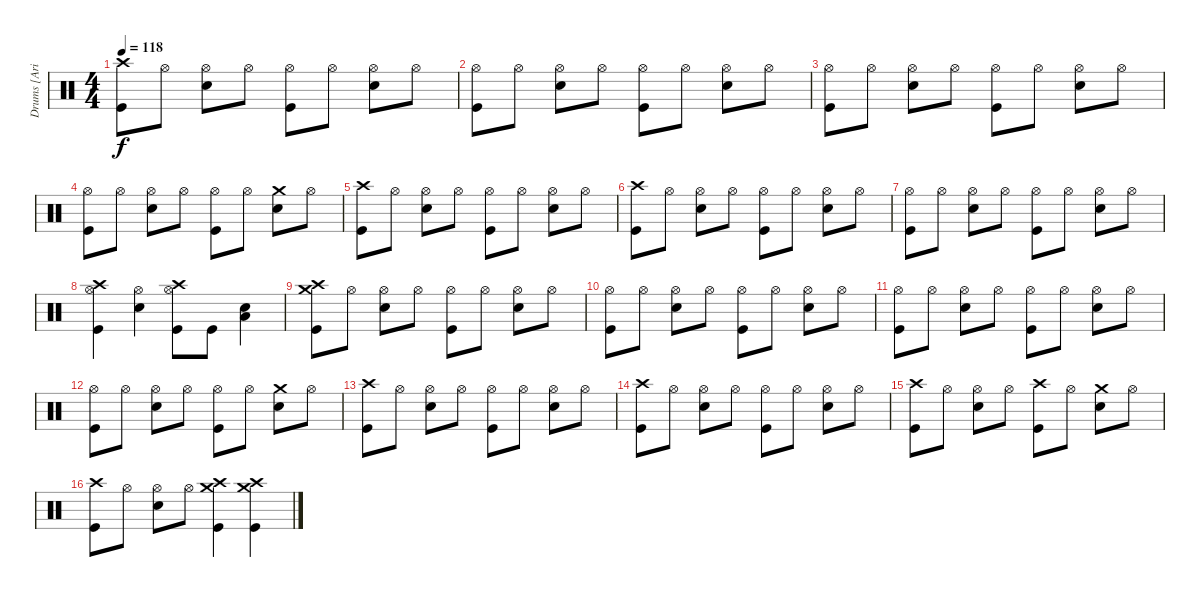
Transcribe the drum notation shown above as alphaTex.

\track ("Drums [Arin Ilejay]" "Drums [Ari") {instrument percussion}
\staff {score}
\articulation defaults
\ts (4 4)
\tempo 118
\clef neutral
\ks c
("Crash high (hit)" "Kick (hit)").8{dy f} "Hi-Hat (open)".8 ("Hi-Hat (open)" "Snare (hit) 2").8 "Hi-Hat (open)".8 ("Hi-Hat (open)" "Kick (hit)").8 "Hi-Hat (open)".8 ("Hi-Hat (open)" "Snare (hit) 2").8 "Hi-Hat (open)".8 |
("Hi-Hat (open)" "Kick (hit)").8 "Hi-Hat (open)".8 ("Hi-Hat (open)" "Snare (hit) 2").8 "Hi-Hat (open)".8 ("Hi-Hat (open)" "Kick (hit)").8 "Hi-Hat (open)".8 ("Hi-Hat (open)" "Snare (hit) 2").8 "Hi-Hat (open)".8 |
("Hi-Hat (open)" "Kick (hit)").8 "Hi-Hat (open)".8 ("Hi-Hat (open)" "Snare (hit) 2").8 "Hi-Hat (open)".8 ("Hi-Hat (open)" "Kick (hit)").8 "Hi-Hat (open)".8 ("Hi-Hat (open)" "Snare (hit) 2").8 "Hi-Hat (open)".8 |
("Hi-Hat (open)" "Kick (hit)").8 "Hi-Hat (open)".8 ("Hi-Hat (open)" "Snare (hit) 2").8 "Hi-Hat (open)".8 ("Hi-Hat (open)" "Kick (hit)").8 "Hi-Hat (open)".8 ("Crash medium (hit)" "Snare (hit) 2").8 "Hi-Hat (open)".8 |
("Crash high (hit)" "Kick (hit)").8 "Hi-Hat (open)".8 ("Hi-Hat (open)" "Snare (hit) 2").8 "Hi-Hat (open)".8 ("Hi-Hat (open)" "Kick (hit)").8 "Hi-Hat (open)".8 ("Hi-Hat (open)" "Snare (hit) 2").8 "Hi-Hat (open)".8 |
("Crash high (hit)" "Kick (hit)").8 "Hi-Hat (open)".8 ("Hi-Hat (open)" "Snare (hit) 2").8 "Hi-Hat (open)".8 ("Hi-Hat (open)" "Kick (hit)").8 "Hi-Hat (open)".8 ("Hi-Hat (open)" "Snare (hit) 2").8 "Hi-Hat (open)".8 |
("Hi-Hat (open)" "Kick (hit)").8 "Hi-Hat (open)".8 ("Hi-Hat (open)" "Snare (hit) 2").8 "Hi-Hat (open)".8 ("Hi-Hat (open)" "Kick (hit)").8 "Hi-Hat (open)".8 ("Hi-Hat (open)" "Snare (hit) 2").8 "Hi-Hat (open)".8 |
("Crash high (hit)" "Hi-Hat (open)" "Kick (hit)").4 ("Hi-Hat (open)" "Snare (hit) 2").4 ("Crash high (hit)" "Hi-Hat (open)" "Kick (hit)").8 "Kick (hit)".8 ("Low Floor Tom (hit)" "Snare (hit) 2").4 |
("Crash high (hit)" "Crash medium (hit)" "Kick (hit)").8 "Hi-Hat (open)".8 ("Hi-Hat (open)" "Snare (hit) 2").8 "Hi-Hat (open)".8 ("Hi-Hat (open)" "Kick (hit)").8 "Hi-Hat (open)".8 ("Hi-Hat (open)" "Snare (hit) 2").8 "Hi-Hat (open)".8 |
("Hi-Hat (open)" "Kick (hit)").8 "Hi-Hat (open)".8 ("Hi-Hat (open)" "Snare (hit) 2").8 "Hi-Hat (open)".8 ("Hi-Hat (open)" "Kick (hit)").8 "Hi-Hat (open)".8 ("Hi-Hat (open)" "Snare (hit) 2").8 "Hi-Hat (open)".8 |
("Hi-Hat (open)" "Kick (hit)").8 "Hi-Hat (open)".8 ("Hi-Hat (open)" "Snare (hit) 2").8 "Hi-Hat (open)".8 ("Hi-Hat (open)" "Kick (hit)").8 "Hi-Hat (open)".8 ("Hi-Hat (open)" "Snare (hit) 2").8 "Hi-Hat (open)".8 |
("Hi-Hat (open)" "Kick (hit)").8 "Hi-Hat (open)".8 ("Hi-Hat (open)" "Snare (hit) 2").8 "Hi-Hat (open)".8 ("Hi-Hat (open)" "Kick (hit)").8 "Hi-Hat (open)".8 ("Crash medium (hit)" "Snare (hit) 2").8 "Hi-Hat (open)".8 |
("Crash high (hit)" "Kick (hit)").8 "Hi-Hat (open)".8 ("Hi-Hat (open)" "Snare (hit) 2").8 "Hi-Hat (open)".8 ("Hi-Hat (open)" "Kick (hit)").8 "Hi-Hat (open)".8 ("Hi-Hat (open)" "Snare (hit) 2").8 "Hi-Hat (open)".8 |
("Crash high (hit)" "Kick (hit)").8 "Hi-Hat (open)".8 ("Hi-Hat (open)" "Snare (hit) 2").8 "Hi-Hat (open)".8 ("Hi-Hat (open)" "Kick (hit)").8 "Hi-Hat (open)".8 ("Hi-Hat (open)" "Snare (hit) 2").8 "Hi-Hat (open)".8 |
("Crash high (hit)" "Kick (hit)").8 "Hi-Hat (open)".8 ("Hi-Hat (open)" "Snare (hit) 2").8 "Hi-Hat (open)".8 ("Crash high (hit)" "Kick (hit)").8 "Hi-Hat (open)".8 ("Crash medium (hit)" "Snare (hit) 2").8 "Hi-Hat (open)".8 |
("Crash high (hit)" "Kick (hit)").8 "Hi-Hat (open)".8 ("Hi-Hat (open)" "Snare (hit) 2").8 "Hi-Hat (open)".8 ("Crash high (hit)" "Crash medium (hit)" "Kick (hit)").4 ("Crash high (hit)" "Crash medium (hit)" "Kick (hit)").4
